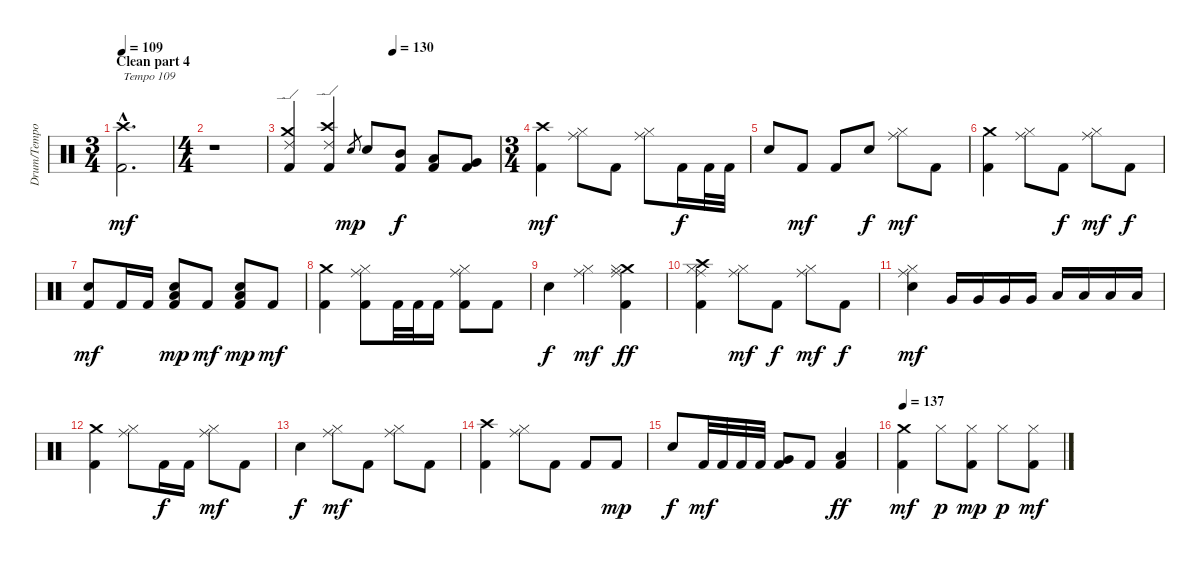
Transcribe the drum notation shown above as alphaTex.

\track ("Drum/Tempo" "Drum/Tempo") {instrument percussion}
\staff {score}
\articulation defaults
\ts (3 4)
\section ("" "Clean part 4")
\tempo 109
\clef neutral
\ks c
("Kick (hit) 2"{hac} "Crash high (hit)"{hac}).2{d txt "Tempo 109" dy mf} |
\ts (4 4)
r.1 |
\tempo (130 0.5)
("Kick (hit) 2" "Crash medium (hit)" "Ride (edge) 2").4 ("Kick (hit) 2" "Crash high (hit)" "Ride (edge) 2").4 "Electric Snare (hit)".8{gr dy mp} "Electric Snare (hit)".8 ("Kick (hit) 2" "Mid Tom (hit)").8{dy f} ("Kick (hit) 2" "Low Tom (hit)").8 ("Kick (hit) 2" "Very Low Tom (hit)").8 |
\ts (3 4)
("Kick (hit) 2" "Crash high (hit)").4{dy mf} ("Ride (middle)" "Hi-Hat (closed)").8 "Kick (hit) 2".8 ("Ride (middle)" "Hi-Hat (closed)").8 "Kick (hit) 2".16{dy f} "Kick (hit) 2".32 "Kick (hit) 2".32 |
"Electric Snare (hit)".8 "Kick (hit) 2".8{dy mf} "Kick (hit) 2".8 "Electric Snare (hit)".8{dy f} ("Ride (middle)" "Hi-Hat (closed)").8{dy mf} "Kick (hit) 2".8 |
("Kick (hit) 2" "Crash medium (hit)").4 ("Ride (middle)" "Hi-Hat (closed)").8 "Kick (hit) 2".8{dy f} ("Ride (middle)" "Hi-Hat (closed)").8{dy mf} "Kick (hit) 2".8{dy f} |
("Kick (hit) 2" "Electric Snare (hit)").8{dy mf} "Kick (hit) 2".16 "Kick (hit) 2".16 ("Kick (hit) 2" "Electric Snare (hit)" "Low Floor Tom (hit)").8{dy mp} "Kick (hit) 2".8{dy mf} ("Kick (hit) 2" "Electric Snare (hit)" "Low Floor Tom (hit)").8{dy mp} "Kick (hit) 2".8{dy mf} |
("Kick (hit) 2" "Crash medium (hit)").4 ("Kick (hit) 2" "Ride (middle)" "Hi-Hat (closed)").8 "Kick (hit) 2".32 "Kick (hit) 2".32 "Kick (hit) 2".16 ("Kick (hit) 2" "Ride (middle)" "Hi-Hat (closed)").8 "Kick (hit) 2".8 |
"Electric Snare (hit)".4{dy f} ("Ride (middle)" "Hi-Hat (closed)").4{dy mf} ("Kick (hit) 2" "Crash medium (hit)" "Ride (middle)" "Hi-Hat (closed)").4{dy ff} |
("Kick (hit) 2" "Crash high (hit)" "Ride (middle)" "Hi-Hat (closed)").4 ("Ride (middle)" "Hi-Hat (closed)").8{dy mf} "Kick (hit) 2".8{dy f} ("Ride (middle)" "Hi-Hat (closed)").8{dy mf} "Kick (hit) 2".8{dy f} |
("Electric Snare (hit)" "Ride (middle)" "Hi-Hat (closed)").4{dy mf} "Very Low Tom (hit)".16 "Very Low Tom (hit)".16 "Very Low Tom (hit)".16 "Very Low Tom (hit)".16 "Low Tom (hit)".16 "Low Tom (hit)".16 "Low Tom (hit)".16 "Low Tom (hit)".16 |
("Kick (hit) 2" "Crash medium (hit)").4 ("Ride (middle)" "Hi-Hat (closed)").8 "Kick (hit) 2".16{dy f} "Kick (hit) 2".16 ("Ride (middle)" "Hi-Hat (closed)").8{dy mf} "Kick (hit) 2".8 |
"Electric Snare (hit)".4{dy f} ("Ride (middle)" "Hi-Hat (closed)").8{dy mf} "Kick (hit) 2".8 ("Ride (middle)" "Hi-Hat (closed)").8 "Kick (hit) 2".8 |
("Kick (hit) 2" "Crash high (hit)").4 ("Ride (middle)" "Hi-Hat (closed)").8 "Kick (hit) 2".8 "Kick (hit) 2".8 "Kick (hit) 2".8{dy mp} |
"Electric Snare (hit)".8{dy f} "Kick (hit) 2".32{dy mf} "Kick (hit) 2".32 "Kick (hit) 2".32 "Kick (hit) 2".32 ("Kick (hit) 2" "Very Low Tom (hit)").8 "Kick (hit) 2".8 ("Kick (hit) 2" "Low Floor Tom (hit)").4{dy ff} |
\tempo 137
("Kick (hit) 2" "Crash medium (hit)").4{dy mf} "Hi-Hat (closed)".8{dy p} ("Kick (hit) 2" "Hi-Hat (closed)").8{dy mp} "Hi-Hat (closed)".8{dy p} ("Kick (hit) 2" "Hi-Hat (closed)").8{dy mf}
